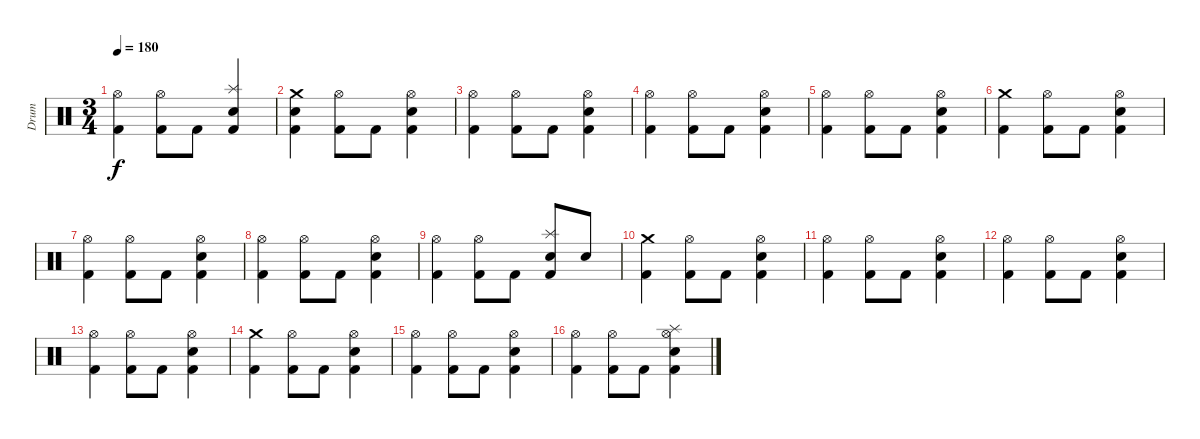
\track ("Drum" "Drum") {instrument percussion}
\staff {score}
\articulation defaults
\ts (3 4)
\tempo 180
\clef neutral
\ks c
("Hi-Hat (open)" "Kick (hit) 2").4{dy f} ("Hi-Hat (open)" "Kick (hit) 2").8 "Kick (hit) 2".8 ("Splash (hit)" "Electric Snare (hit)" "Kick (hit) 2").4 |
("Crash medium (hit)" "Electric Snare (hit)" "Kick (hit) 2").4 ("Hi-Hat (open)" "Kick (hit) 2").8 "Kick (hit) 2".8 ("Hi-Hat (open)" "Electric Snare (hit)" "Kick (hit) 2").4 |
("Hi-Hat (open)" "Kick (hit) 2").4 ("Hi-Hat (open)" "Kick (hit) 2").8 "Kick (hit) 2".8 ("Hi-Hat (open)" "Electric Snare (hit)" "Kick (hit) 2").4 |
("Hi-Hat (open)" "Kick (hit) 2").4 ("Hi-Hat (open)" "Kick (hit) 2").8 "Kick (hit) 2".8 ("Hi-Hat (open)" "Electric Snare (hit)" "Kick (hit) 2").4 |
("Hi-Hat (open)" "Kick (hit) 2").4 ("Hi-Hat (open)" "Kick (hit) 2").8 "Kick (hit) 2".8 ("Hi-Hat (open)" "Electric Snare (hit)" "Kick (hit) 2").4 |
("Crash medium (hit)" "Kick (hit) 2").4 ("Hi-Hat (open)" "Kick (hit) 2").8 "Kick (hit) 2".8 ("Hi-Hat (open)" "Electric Snare (hit)" "Kick (hit) 2").4 |
("Hi-Hat (open)" "Kick (hit) 2").4 ("Hi-Hat (open)" "Kick (hit) 2").8 "Kick (hit) 2".8 ("Hi-Hat (open)" "Electric Snare (hit)" "Kick (hit) 2").4 |
("Hi-Hat (open)" "Kick (hit) 2").4 ("Hi-Hat (open)" "Kick (hit) 2").8 "Kick (hit) 2".8 ("Hi-Hat (open)" "Electric Snare (hit)" "Kick (hit) 2").4 |
("Hi-Hat (open)" "Kick (hit) 2").4 ("Hi-Hat (open)" "Kick (hit) 2").8 "Kick (hit) 2".8 ("Splash (hit)" "Electric Snare (hit)" "Kick (hit) 2").8 "Electric Snare (hit)".8 |
("Crash medium (hit)" "Kick (hit) 2").4 ("Hi-Hat (open)" "Kick (hit) 2").8 "Kick (hit) 2".8 ("Hi-Hat (open)" "Electric Snare (hit)" "Kick (hit) 2").4 |
("Hi-Hat (open)" "Kick (hit) 2").4 ("Hi-Hat (open)" "Kick (hit) 2").8 "Kick (hit) 2".8 ("Hi-Hat (open)" "Electric Snare (hit)" "Kick (hit) 2").4 |
("Hi-Hat (open)" "Kick (hit) 2").4 ("Hi-Hat (open)" "Kick (hit) 2").8 "Kick (hit) 2".8 ("Hi-Hat (open)" "Electric Snare (hit)" "Kick (hit) 2").4 |
("Hi-Hat (open)" "Kick (hit) 2").4 ("Hi-Hat (open)" "Kick (hit) 2").8 "Kick (hit) 2".8 ("Hi-Hat (open)" "Electric Snare (hit)" "Kick (hit) 2").4 |
("Crash medium (hit)" "Kick (hit) 2").4 ("Hi-Hat (open)" "Kick (hit) 2").8 "Kick (hit) 2".8 ("Hi-Hat (open)" "Electric Snare (hit)" "Kick (hit) 2").4 |
("Hi-Hat (open)" "Kick (hit) 2").4 ("Hi-Hat (open)" "Kick (hit) 2").8 "Kick (hit) 2".8 ("Hi-Hat (open)" "Electric Snare (hit)" "Kick (hit) 2").4 |
("Hi-Hat (open)" "Kick (hit) 2").4 ("Hi-Hat (open)" "Kick (hit) 2").8 "Kick (hit) 2".8 ("Splash (hit)" "Hi-Hat (open)" "Electric Snare (hit)" "Kick (hit) 2").4
